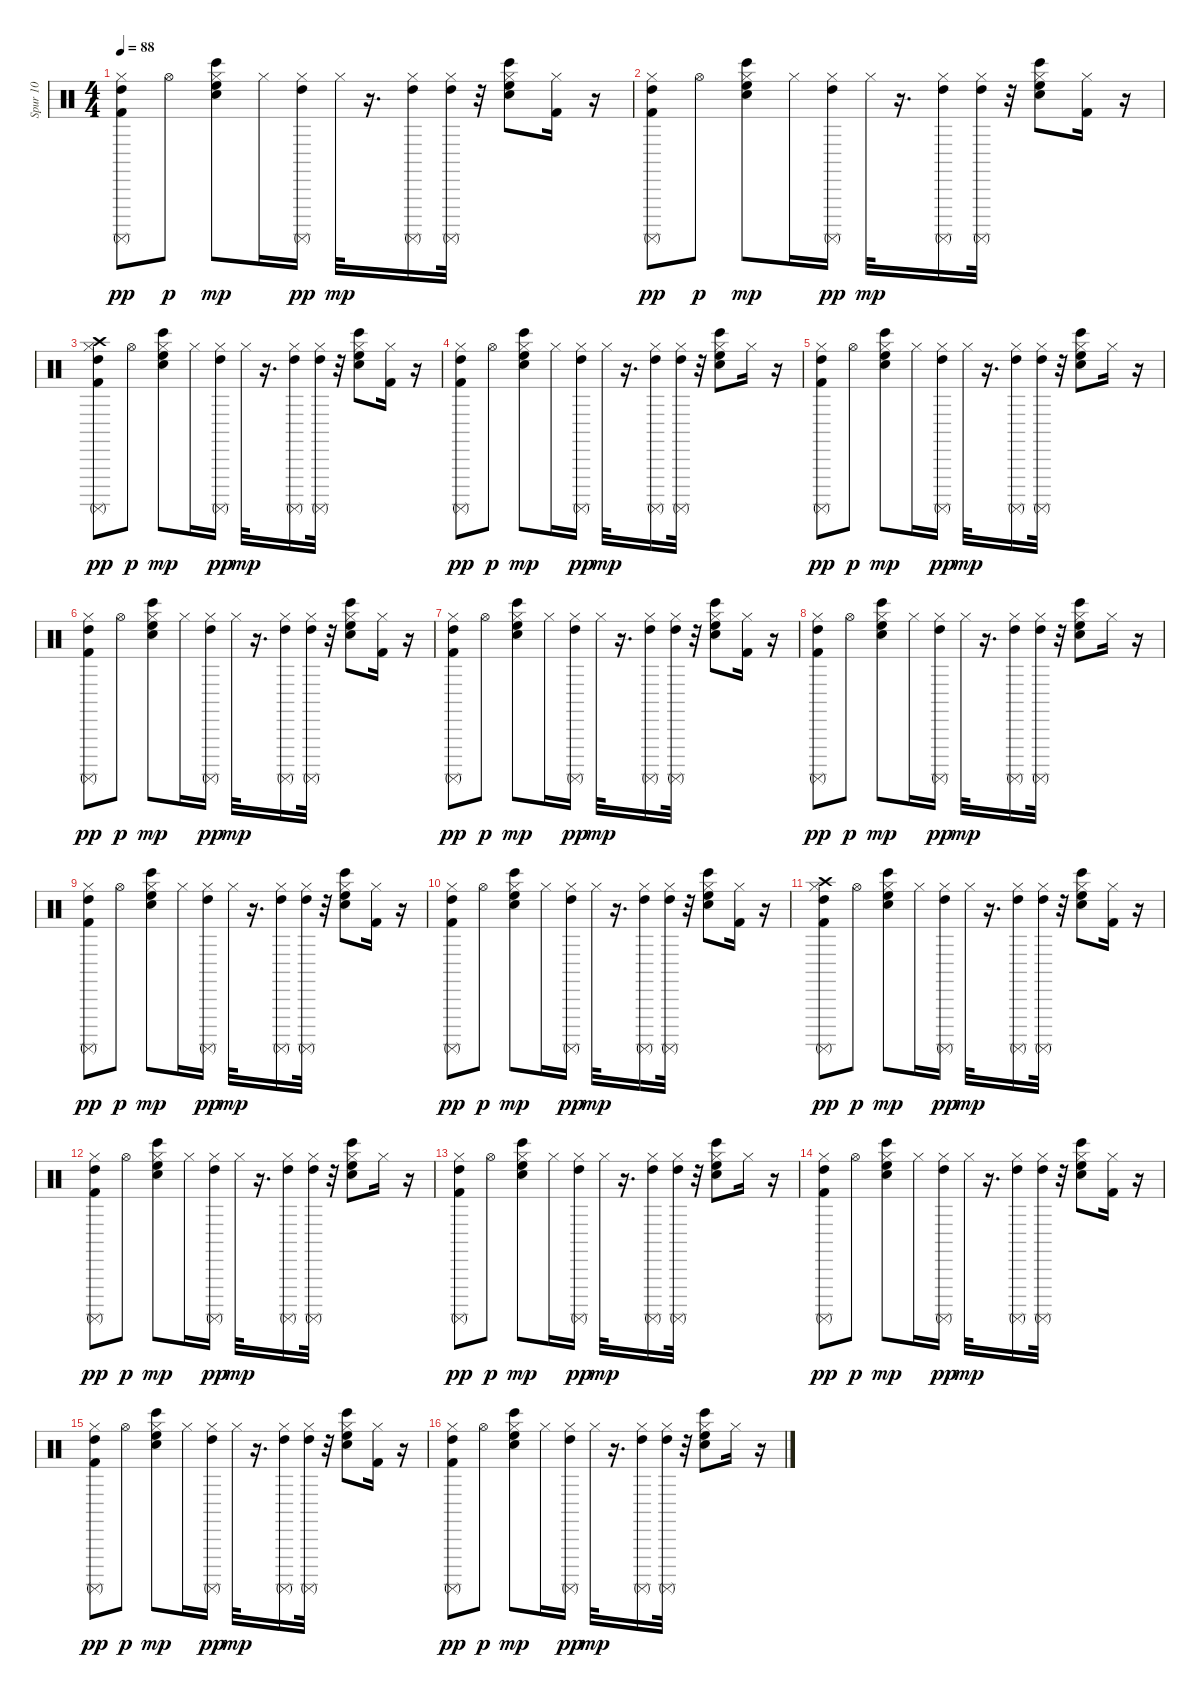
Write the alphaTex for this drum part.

\track ("Spur 10" "Spur 10") {instrument percussion}
\staff {score}
\articulation defaults
\ts (4 4)
\tempo 88
\clef neutral
\ks c
("Kick (hit) 2" "High Tom (hit)" "Surdo (mute)" "Hi-Hat (closed)").8{dy pp} "Hi-Hat (open)".8{dy p} ("Bongo High (hit)" "Hand Clap (hit)" "High Floor Tom (hit)" "Hi-Hat (closed)").8{dy mp} "Hi-Hat (closed)".16 ("High Tom (hit)" "Surdo (mute)" "Hi-Hat (closed)").16{dy pp} "Hi-Hat (closed)".32{dy mp} r.16{d} ("High Tom (hit)" "Surdo (mute)" "Hi-Hat (closed)").16 ("Hi-Hat (closed)" "High Tom (hit)" "Surdo (mute)").32 r.32 ("Bongo High (hit)" "Hand Clap (hit)" "High Floor Tom (hit)" "Hi-Hat (closed)").8 ("Kick (hit) 2" "Hi-Hat (closed)").16 r.16 |
("Kick (hit) 2" "High Tom (hit)" "Surdo (mute)" "Hi-Hat (closed)").8{dy pp} "Hi-Hat (open)".8{dy p} ("Bongo High (hit)" "Hand Clap (hit)" "High Floor Tom (hit)" "Hi-Hat (closed)").8{dy mp} "Hi-Hat (closed)".16 ("High Tom (hit)" "Surdo (mute)" "Hi-Hat (closed)").16{dy pp} "Hi-Hat (closed)".32{dy mp} r.16{d} ("High Tom (hit)" "Surdo (mute)" "Hi-Hat (closed)").16 ("Hi-Hat (closed)" "High Tom (hit)" "Surdo (mute)").32 r.32 ("Bongo High (hit)" "Hand Clap (hit)" "High Floor Tom (hit)" "Hi-Hat (closed)").8 ("Kick (hit) 2" "Hi-Hat (closed)").16 r.16 |
("Kick (hit) 2" "High Tom (hit)" "Crash high (hit)" "Surdo (mute)" "Hi-Hat (closed)").8{dy pp} "Hi-Hat (open)".8{dy p} ("Bongo High (hit)" "Hand Clap (hit)" "High Floor Tom (hit)" "Hi-Hat (closed)").8{dy mp} "Hi-Hat (closed)".16 ("High Tom (hit)" "Surdo (mute)" "Hi-Hat (closed)").16{dy pp} "Hi-Hat (closed)".32{dy mp} r.16{d} ("High Tom (hit)" "Surdo (mute)" "Hi-Hat (closed)").16 ("Hi-Hat (closed)" "High Tom (hit)" "Surdo (mute)").32 r.32 ("Bongo High (hit)" "Hand Clap (hit)" "High Floor Tom (hit)" "Hi-Hat (closed)").8 ("Kick (hit) 2" "Hi-Hat (closed)").16 r.16 |
("Kick (hit) 2" "High Tom (hit)" "Surdo (mute)" "Hi-Hat (closed)").8{dy pp} "Hi-Hat (open)".8{dy p} ("Bongo High (hit)" "Hand Clap (hit)" "High Floor Tom (hit)" "Hi-Hat (closed)").8{dy mp} "Hi-Hat (closed)".16 ("High Tom (hit)" "Surdo (mute)" "Hi-Hat (closed)").16{dy pp} "Hi-Hat (closed)".32{dy mp} r.16{d} ("High Tom (hit)" "Surdo (mute)" "Hi-Hat (closed)").16 ("Hi-Hat (closed)" "High Tom (hit)" "Surdo (mute)").32 r.32 ("Bongo High (hit)" "Hand Clap (hit)" "High Floor Tom (hit)" "Hi-Hat (closed)").8 "Hi-Hat (closed)".16 r.16 |
("Kick (hit) 2" "High Tom (hit)" "Surdo (mute)" "Hi-Hat (closed)").8{dy pp} "Hi-Hat (open)".8{dy p} ("Bongo High (hit)" "Hand Clap (hit)" "High Floor Tom (hit)" "Hi-Hat (closed)").8{dy mp} "Hi-Hat (closed)".16 ("High Tom (hit)" "Surdo (mute)" "Hi-Hat (closed)").16{dy pp} "Hi-Hat (closed)".32{dy mp} r.16{d} ("High Tom (hit)" "Surdo (mute)" "Hi-Hat (closed)").16 ("Hi-Hat (closed)" "High Tom (hit)" "Surdo (mute)").32 r.32 ("Bongo High (hit)" "Hand Clap (hit)" "High Floor Tom (hit)" "Hi-Hat (closed)").8 "Hi-Hat (closed)".16 r.16 |
("Kick (hit) 2" "High Tom (hit)" "Surdo (mute)" "Hi-Hat (closed)").8{dy pp} "Hi-Hat (open)".8{dy p} ("Bongo High (hit)" "Hand Clap (hit)" "High Floor Tom (hit)" "Hi-Hat (closed)").8{dy mp} "Hi-Hat (closed)".16 ("High Tom (hit)" "Surdo (mute)" "Hi-Hat (closed)").16{dy pp} "Hi-Hat (closed)".32{dy mp} r.16{d} ("High Tom (hit)" "Surdo (mute)" "Hi-Hat (closed)").16 ("Hi-Hat (closed)" "High Tom (hit)" "Surdo (mute)").32 r.32 ("Bongo High (hit)" "Hand Clap (hit)" "High Floor Tom (hit)" "Hi-Hat (closed)").8 ("Kick (hit) 2" "Hi-Hat (closed)").16 r.16 |
("Kick (hit) 2" "High Tom (hit)" "Surdo (mute)" "Hi-Hat (closed)").8{dy pp} "Hi-Hat (open)".8{dy p} ("Bongo High (hit)" "Hand Clap (hit)" "High Floor Tom (hit)" "Hi-Hat (closed)").8{dy mp} "Hi-Hat (closed)".16 ("High Tom (hit)" "Surdo (mute)" "Hi-Hat (closed)").16{dy pp} "Hi-Hat (closed)".32{dy mp} r.16{d} ("High Tom (hit)" "Surdo (mute)" "Hi-Hat (closed)").16 ("Hi-Hat (closed)" "High Tom (hit)" "Surdo (mute)").32 r.32 ("Bongo High (hit)" "Hand Clap (hit)" "High Floor Tom (hit)" "Hi-Hat (closed)").8 ("Kick (hit) 2" "Hi-Hat (closed)").16 r.16 |
("Kick (hit) 2" "High Tom (hit)" "Surdo (mute)" "Hi-Hat (closed)").8{dy pp} "Hi-Hat (open)".8{dy p} ("Bongo High (hit)" "Hand Clap (hit)" "High Floor Tom (hit)" "Hi-Hat (closed)").8{dy mp} "Hi-Hat (closed)".16 ("High Tom (hit)" "Surdo (mute)" "Hi-Hat (closed)").16{dy pp} "Hi-Hat (closed)".32{dy mp} r.16{d} ("High Tom (hit)" "Surdo (mute)" "Hi-Hat (closed)").16 ("Hi-Hat (closed)" "High Tom (hit)" "Surdo (mute)").32 r.32 ("Bongo High (hit)" "Hand Clap (hit)" "High Floor Tom (hit)" "Hi-Hat (closed)").8 "Hi-Hat (closed)".16 r.16 |
("Kick (hit) 2" "High Tom (hit)" "Surdo (mute)" "Hi-Hat (closed)").8{dy pp} "Hi-Hat (open)".8{dy p} ("Bongo High (hit)" "Hand Clap (hit)" "High Floor Tom (hit)" "Hi-Hat (closed)").8{dy mp} "Hi-Hat (closed)".16 ("High Tom (hit)" "Surdo (mute)" "Hi-Hat (closed)").16{dy pp} "Hi-Hat (closed)".32{dy mp} r.16{d} ("High Tom (hit)" "Surdo (mute)" "Hi-Hat (closed)").16 ("Hi-Hat (closed)" "High Tom (hit)" "Surdo (mute)").32 r.32 ("Bongo High (hit)" "Hand Clap (hit)" "High Floor Tom (hit)" "Hi-Hat (closed)").8 ("Kick (hit) 2" "Hi-Hat (closed)").16 r.16 |
("Kick (hit) 2" "High Tom (hit)" "Surdo (mute)" "Hi-Hat (closed)").8{dy pp} "Hi-Hat (open)".8{dy p} ("Bongo High (hit)" "Hand Clap (hit)" "High Floor Tom (hit)" "Hi-Hat (closed)").8{dy mp} "Hi-Hat (closed)".16 ("High Tom (hit)" "Surdo (mute)" "Hi-Hat (closed)").16{dy pp} "Hi-Hat (closed)".32{dy mp} r.16{d} ("High Tom (hit)" "Surdo (mute)" "Hi-Hat (closed)").16 ("Hi-Hat (closed)" "High Tom (hit)" "Surdo (mute)").32 r.32 ("Bongo High (hit)" "Hand Clap (hit)" "High Floor Tom (hit)" "Hi-Hat (closed)").8 ("Kick (hit) 2" "Hi-Hat (closed)").16 r.16 |
("Kick (hit) 2" "High Tom (hit)" "Crash high (hit)" "Surdo (mute)" "Hi-Hat (closed)").8{dy pp} "Hi-Hat (open)".8{dy p} ("Bongo High (hit)" "Hand Clap (hit)" "High Floor Tom (hit)" "Hi-Hat (closed)").8{dy mp} "Hi-Hat (closed)".16 ("High Tom (hit)" "Surdo (mute)" "Hi-Hat (closed)").16{dy pp} "Hi-Hat (closed)".32{dy mp} r.16{d} ("High Tom (hit)" "Surdo (mute)" "Hi-Hat (closed)").16 ("Hi-Hat (closed)" "High Tom (hit)" "Surdo (mute)").32 r.32 ("Bongo High (hit)" "Hand Clap (hit)" "High Floor Tom (hit)" "Hi-Hat (closed)").8 ("Kick (hit) 2" "Hi-Hat (closed)").16 r.16 |
("Kick (hit) 2" "High Tom (hit)" "Surdo (mute)" "Hi-Hat (closed)").8{dy pp} "Hi-Hat (open)".8{dy p} ("Bongo High (hit)" "Hand Clap (hit)" "High Floor Tom (hit)" "Hi-Hat (closed)").8{dy mp} "Hi-Hat (closed)".16 ("High Tom (hit)" "Surdo (mute)" "Hi-Hat (closed)").16{dy pp} "Hi-Hat (closed)".32{dy mp} r.16{d} ("High Tom (hit)" "Surdo (mute)" "Hi-Hat (closed)").16 ("Hi-Hat (closed)" "High Tom (hit)" "Surdo (mute)").32 r.32 ("Bongo High (hit)" "Hand Clap (hit)" "High Floor Tom (hit)" "Hi-Hat (closed)").8 "Hi-Hat (closed)".16 r.16 |
("Kick (hit) 2" "High Tom (hit)" "Surdo (mute)" "Hi-Hat (closed)").8{dy pp} "Hi-Hat (open)".8{dy p} ("Bongo High (hit)" "Hand Clap (hit)" "High Floor Tom (hit)" "Hi-Hat (closed)").8{dy mp} "Hi-Hat (closed)".16 ("High Tom (hit)" "Surdo (mute)" "Hi-Hat (closed)").16{dy pp} "Hi-Hat (closed)".32{dy mp} r.16{d} ("High Tom (hit)" "Surdo (mute)" "Hi-Hat (closed)").16 ("Hi-Hat (closed)" "High Tom (hit)" "Surdo (mute)").32 r.32 ("Bongo High (hit)" "Hand Clap (hit)" "High Floor Tom (hit)" "Hi-Hat (closed)").8 "Hi-Hat (closed)".16 r.16 |
("Kick (hit) 2" "High Tom (hit)" "Surdo (mute)" "Hi-Hat (closed)").8{dy pp} "Hi-Hat (open)".8{dy p} ("Bongo High (hit)" "Hand Clap (hit)" "High Floor Tom (hit)" "Hi-Hat (closed)").8{dy mp} "Hi-Hat (closed)".16 ("High Tom (hit)" "Surdo (mute)" "Hi-Hat (closed)").16{dy pp} "Hi-Hat (closed)".32{dy mp} r.16{d} ("High Tom (hit)" "Surdo (mute)" "Hi-Hat (closed)").16 ("Hi-Hat (closed)" "High Tom (hit)" "Surdo (mute)").32 r.32 ("Bongo High (hit)" "Hand Clap (hit)" "High Floor Tom (hit)" "Hi-Hat (closed)").8 ("Kick (hit) 2" "Hi-Hat (closed)").16 r.16 |
("Kick (hit) 2" "High Tom (hit)" "Surdo (mute)" "Hi-Hat (closed)").8{dy pp} "Hi-Hat (open)".8{dy p} ("Bongo High (hit)" "Hand Clap (hit)" "High Floor Tom (hit)" "Hi-Hat (closed)").8{dy mp} "Hi-Hat (closed)".16 ("High Tom (hit)" "Surdo (mute)" "Hi-Hat (closed)").16{dy pp} "Hi-Hat (closed)".32{dy mp} r.16{d} ("High Tom (hit)" "Surdo (mute)" "Hi-Hat (closed)").16 ("Hi-Hat (closed)" "High Tom (hit)" "Surdo (mute)").32 r.32 ("Bongo High (hit)" "Hand Clap (hit)" "High Floor Tom (hit)" "Hi-Hat (closed)").8 ("Kick (hit) 2" "Hi-Hat (closed)").16 r.16 |
("Kick (hit) 2" "High Tom (hit)" "Surdo (mute)" "Hi-Hat (closed)").8{dy pp} "Hi-Hat (open)".8{dy p} ("Bongo High (hit)" "Hand Clap (hit)" "High Floor Tom (hit)" "Hi-Hat (closed)").8{dy mp} "Hi-Hat (closed)".16 ("High Tom (hit)" "Surdo (mute)" "Hi-Hat (closed)").16{dy pp} "Hi-Hat (closed)".32{dy mp} r.16{d} ("High Tom (hit)" "Surdo (mute)" "Hi-Hat (closed)").16 ("Hi-Hat (closed)" "High Tom (hit)" "Surdo (mute)").32 r.32 ("Bongo High (hit)" "Hand Clap (hit)" "High Floor Tom (hit)" "Hi-Hat (closed)").8 "Hi-Hat (closed)".16 r.16
